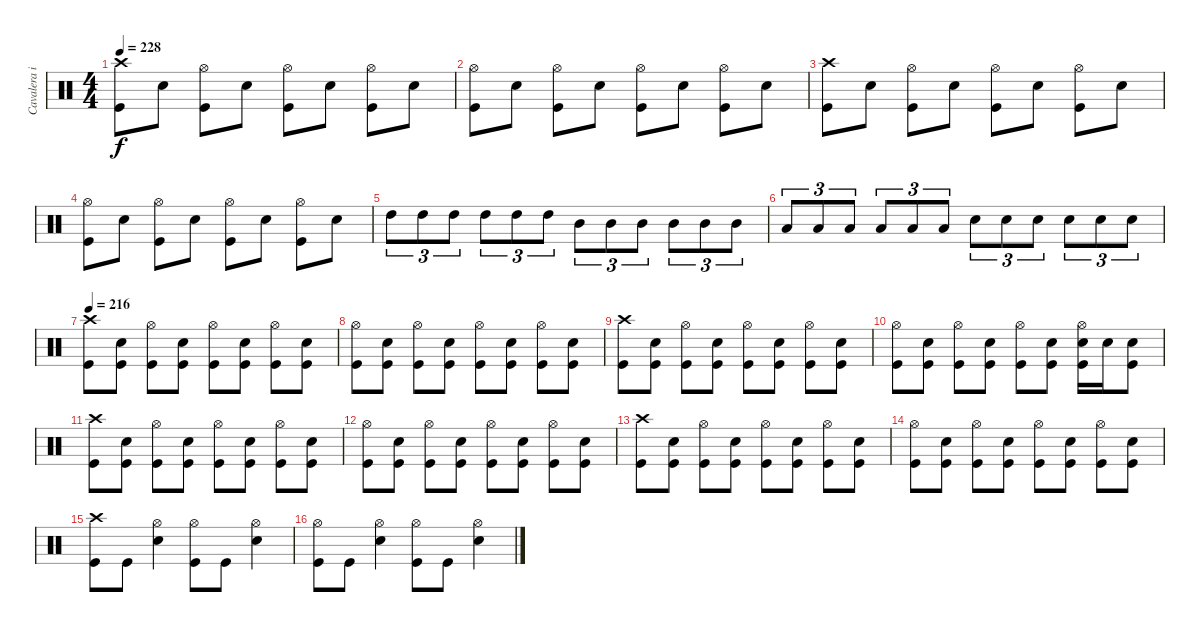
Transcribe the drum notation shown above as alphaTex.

\track ("Cavalera igor" "Cavalera i") {instrument percussion}
\staff {score}
\articulation defaults
\ts (4 4)
\tempo 228
\clef neutral
\ks c
("Crash high (hit)" "Kick (hit)").8{dy f} "Electric Snare (hit)".8 ("Hi-Hat (open)" "Kick (hit)").8 "Electric Snare (hit)".8 ("Hi-Hat (open)" "Kick (hit)").8 "Electric Snare (hit)".8 ("Hi-Hat (open)" "Kick (hit)").8 "Electric Snare (hit)".8 |
("Hi-Hat (open)" "Kick (hit)").8 "Electric Snare (hit)".8 ("Hi-Hat (open)" "Kick (hit)").8 "Electric Snare (hit)".8 ("Hi-Hat (open)" "Kick (hit)").8 "Electric Snare (hit)".8 ("Hi-Hat (open)" "Kick (hit)").8 "Electric Snare (hit)".8 |
("Crash high (hit)" "Kick (hit)").8 "Electric Snare (hit)".8 ("Hi-Hat (open)" "Kick (hit)").8 "Electric Snare (hit)".8 ("Hi-Hat (open)" "Kick (hit)").8 "Electric Snare (hit)".8 ("Hi-Hat (open)" "Kick (hit)").8 "Electric Snare (hit)".8 |
("Hi-Hat (open)" "Kick (hit)").8 "Electric Snare (hit)".8 ("Hi-Hat (open)" "Kick (hit)").8 "Electric Snare (hit)".8 ("Hi-Hat (open)" "Kick (hit)").8 "Electric Snare (hit)".8 ("Hi-Hat (open)" "Kick (hit)").8 "Electric Snare (hit)".8 |
"High Tom (hit)".8{tu (3 2)} "High Tom (hit)".8{tu (3 2)} "High Tom (hit)".8{tu (3 2)} "High Tom (hit)".8{tu (3 2)} "High Tom (hit)".8{tu (3 2)} "High Tom (hit)".8{tu (3 2)} "Mid Tom (hit)".8{tu (3 2)} "Mid Tom (hit)".8{tu (3 2)} "Mid Tom (hit)".8{tu (3 2)} "Mid Tom (hit)".8{tu (3 2)} "Mid Tom (hit)".8{tu (3 2)} "Mid Tom (hit)".8{tu (3 2)} |
"Low Tom (hit)".8{tu (3 2)} "Low Tom (hit)".8{tu (3 2)} "Low Tom (hit)".8{tu (3 2)} "Low Tom (hit)".8{tu (3 2)} "Low Tom (hit)".8{tu (3 2)} "Low Tom (hit)".8{tu (3 2)} "Electric Snare (hit)".8{tu (3 2)} "Electric Snare (hit)".8{tu (3 2)} "Electric Snare (hit)".8{tu (3 2)} "Electric Snare (hit)".8{tu (3 2)} "Electric Snare (hit)".8{tu (3 2)} "Electric Snare (hit)".8{tu (3 2)} |
\tempo 216
("Crash high (hit)" "Kick (hit)").8 ("Electric Snare (hit)" "Kick (hit)").8 ("Hi-Hat (open)" "Kick (hit)").8 ("Electric Snare (hit)" "Kick (hit)").8 ("Hi-Hat (open)" "Kick (hit)").8 ("Electric Snare (hit)" "Kick (hit)").8 ("Hi-Hat (open)" "Kick (hit)").8 ("Electric Snare (hit)" "Kick (hit)").8 |
("Hi-Hat (open)" "Kick (hit)").8 ("Electric Snare (hit)" "Kick (hit)").8 ("Hi-Hat (open)" "Kick (hit)").8 ("Electric Snare (hit)" "Kick (hit)").8 ("Hi-Hat (open)" "Kick (hit)").8 ("Electric Snare (hit)" "Kick (hit)").8 ("Hi-Hat (open)" "Kick (hit)").8 ("Electric Snare (hit)" "Kick (hit)").8 |
("Crash high (hit)" "Kick (hit)").8 ("Electric Snare (hit)" "Kick (hit)").8 ("Hi-Hat (open)" "Kick (hit)").8 ("Electric Snare (hit)" "Kick (hit)").8 ("Hi-Hat (open)" "Kick (hit)").8 ("Electric Snare (hit)" "Kick (hit)").8 ("Hi-Hat (open)" "Kick (hit)").8 ("Electric Snare (hit)" "Kick (hit)").8 |
("Hi-Hat (open)" "Kick (hit)").8 ("Electric Snare (hit)" "Kick (hit)").8 ("Hi-Hat (open)" "Kick (hit)").8 ("Electric Snare (hit)" "Kick (hit)").8 ("Hi-Hat (open)" "Kick (hit)").8 ("Electric Snare (hit)" "Kick (hit)").8 ("Hi-Hat (open)" "Electric Snare (hit)" "Kick (hit)").16 "Electric Snare (hit)".16 ("Electric Snare (hit)" "Kick (hit)").8 |
("Crash high (hit)" "Kick (hit)").8 ("Electric Snare (hit)" "Kick (hit)").8 ("Hi-Hat (open)" "Kick (hit)").8 ("Electric Snare (hit)" "Kick (hit)").8 ("Hi-Hat (open)" "Kick (hit)").8 ("Electric Snare (hit)" "Kick (hit)").8 ("Hi-Hat (open)" "Kick (hit)").8 ("Electric Snare (hit)" "Kick (hit)").8 |
("Hi-Hat (open)" "Kick (hit)").8 ("Electric Snare (hit)" "Kick (hit)").8 ("Hi-Hat (open)" "Kick (hit)").8 ("Electric Snare (hit)" "Kick (hit)").8 ("Hi-Hat (open)" "Kick (hit)").8 ("Electric Snare (hit)" "Kick (hit)").8 ("Hi-Hat (open)" "Kick (hit)").8 ("Electric Snare (hit)" "Kick (hit)").8 |
("Crash high (hit)" "Kick (hit)").8 ("Electric Snare (hit)" "Kick (hit)").8 ("Hi-Hat (open)" "Kick (hit)").8 ("Electric Snare (hit)" "Kick (hit)").8 ("Hi-Hat (open)" "Kick (hit)").8 ("Electric Snare (hit)" "Kick (hit)").8 ("Hi-Hat (open)" "Kick (hit)").8 ("Electric Snare (hit)" "Kick (hit)").8 |
("Hi-Hat (open)" "Kick (hit)").8 ("Electric Snare (hit)" "Kick (hit)").8 ("Hi-Hat (open)" "Kick (hit)").8 ("Electric Snare (hit)" "Kick (hit)").8 ("Hi-Hat (open)" "Kick (hit)").8 ("Electric Snare (hit)" "Kick (hit)").8 ("Hi-Hat (open)" "Kick (hit)").8 ("Electric Snare (hit)" "Kick (hit)").8 |
("Crash high (hit)" "Kick (hit)").8 "Kick (hit)".8 ("Hi-Hat (open)" "Electric Snare (hit)").4 ("Hi-Hat (open)" "Kick (hit)").8 "Kick (hit)".8 ("Hi-Hat (open)" "Electric Snare (hit)").4 |
("Hi-Hat (open)" "Kick (hit)").8 "Kick (hit)".8 ("Hi-Hat (open)" "Electric Snare (hit)").4 ("Hi-Hat (open)" "Kick (hit)").8 "Kick (hit)".8 ("Hi-Hat (open)" "Electric Snare (hit)").4
